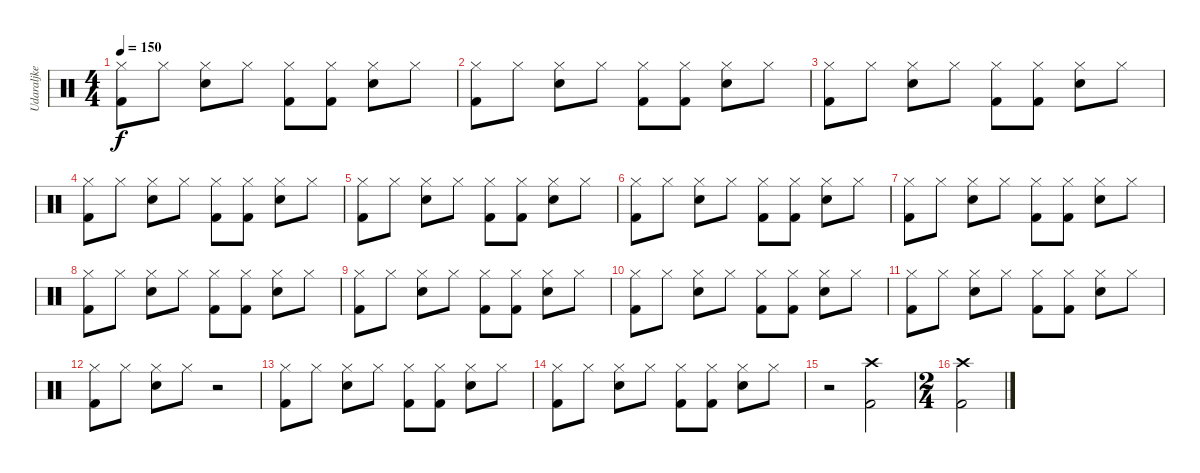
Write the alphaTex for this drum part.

\track ("Udaraljke" "Udaraljke") {instrument percussion}
\staff {score}
\articulation defaults
\ts (4 4)
\tempo 150
\clef neutral
\ks c
("Hi-Hat (closed)" "Kick (hit) 2").8{dy f} "Hi-Hat (closed)".8 ("Hi-Hat (closed)" "Snare (hit) 2").8 "Hi-Hat (closed)".8 ("Hi-Hat (closed)" "Kick (hit) 2").8 ("Hi-Hat (closed)" "Kick (hit) 2").8 ("Hi-Hat (closed)" "Snare (hit) 2").8 "Hi-Hat (closed)".8 |
("Hi-Hat (closed)" "Kick (hit) 2").8 "Hi-Hat (closed)".8 ("Hi-Hat (closed)" "Snare (hit) 2").8 "Hi-Hat (closed)".8 ("Hi-Hat (closed)" "Kick (hit) 2").8 ("Hi-Hat (closed)" "Kick (hit) 2").8 ("Hi-Hat (closed)" "Snare (hit) 2").8 "Hi-Hat (closed)".8 |
("Hi-Hat (closed)" "Kick (hit) 2").8 "Hi-Hat (closed)".8 ("Hi-Hat (closed)" "Snare (hit) 2").8 "Hi-Hat (closed)".8 ("Hi-Hat (closed)" "Kick (hit) 2").8 ("Hi-Hat (closed)" "Kick (hit) 2").8 ("Hi-Hat (closed)" "Snare (hit) 2").8 "Hi-Hat (closed)".8 |
("Hi-Hat (closed)" "Kick (hit) 2").8 "Hi-Hat (closed)".8 ("Hi-Hat (closed)" "Snare (hit) 2").8 "Hi-Hat (closed)".8 ("Hi-Hat (closed)" "Kick (hit) 2").8 ("Hi-Hat (closed)" "Kick (hit) 2").8 ("Hi-Hat (closed)" "Snare (hit) 2").8 "Hi-Hat (closed)".8 |
("Hi-Hat (closed)" "Kick (hit) 2").8 "Hi-Hat (closed)".8 ("Hi-Hat (closed)" "Snare (hit) 2").8 "Hi-Hat (closed)".8 ("Hi-Hat (closed)" "Kick (hit) 2").8 ("Hi-Hat (closed)" "Kick (hit) 2").8 ("Hi-Hat (closed)" "Snare (hit) 2").8 "Hi-Hat (closed)".8 |
("Hi-Hat (closed)" "Kick (hit) 2").8 "Hi-Hat (closed)".8 ("Hi-Hat (closed)" "Snare (hit) 2").8 "Hi-Hat (closed)".8 ("Hi-Hat (closed)" "Kick (hit) 2").8 ("Hi-Hat (closed)" "Kick (hit) 2").8 ("Hi-Hat (closed)" "Snare (hit) 2").8 "Hi-Hat (closed)".8 |
("Hi-Hat (closed)" "Kick (hit) 2").8 "Hi-Hat (closed)".8 ("Hi-Hat (closed)" "Snare (hit) 2").8 "Hi-Hat (closed)".8 ("Hi-Hat (closed)" "Kick (hit) 2").8 ("Hi-Hat (closed)" "Kick (hit) 2").8 ("Hi-Hat (closed)" "Snare (hit) 2").8 "Hi-Hat (closed)".8 |
("Hi-Hat (closed)" "Kick (hit) 2").8 "Hi-Hat (closed)".8 ("Hi-Hat (closed)" "Snare (hit) 2").8 "Hi-Hat (closed)".8 ("Hi-Hat (closed)" "Kick (hit) 2").8 ("Hi-Hat (closed)" "Kick (hit) 2").8 ("Hi-Hat (closed)" "Snare (hit) 2").8 "Hi-Hat (closed)".8 |
("Hi-Hat (closed)" "Kick (hit) 2").8 "Hi-Hat (closed)".8 ("Hi-Hat (closed)" "Snare (hit) 2").8 "Hi-Hat (closed)".8 ("Hi-Hat (closed)" "Kick (hit) 2").8 ("Hi-Hat (closed)" "Kick (hit) 2").8 ("Hi-Hat (closed)" "Snare (hit) 2").8 "Hi-Hat (closed)".8 |
("Hi-Hat (closed)" "Kick (hit) 2").8 "Hi-Hat (closed)".8 ("Hi-Hat (closed)" "Snare (hit) 2").8 "Hi-Hat (closed)".8 ("Hi-Hat (closed)" "Kick (hit) 2").8 ("Hi-Hat (closed)" "Kick (hit) 2").8 ("Hi-Hat (closed)" "Snare (hit) 2").8 "Hi-Hat (closed)".8 |
("Hi-Hat (closed)" "Kick (hit) 2").8 "Hi-Hat (closed)".8 ("Hi-Hat (closed)" "Snare (hit) 2").8 "Hi-Hat (closed)".8 ("Hi-Hat (closed)" "Kick (hit) 2").8 ("Hi-Hat (closed)" "Kick (hit) 2").8 ("Hi-Hat (closed)" "Snare (hit) 2").8 "Hi-Hat (closed)".8 |
("Hi-Hat (closed)" "Kick (hit) 2").8 "Hi-Hat (closed)".8 ("Hi-Hat (closed)" "Snare (hit) 2").8 "Hi-Hat (closed)".8 r.2 |
("Hi-Hat (closed)" "Kick (hit) 2").8 "Hi-Hat (closed)".8 ("Hi-Hat (closed)" "Snare (hit) 2").8 "Hi-Hat (closed)".8 ("Hi-Hat (closed)" "Kick (hit) 2").8 ("Hi-Hat (closed)" "Kick (hit) 2").8 ("Hi-Hat (closed)" "Snare (hit) 2").8 "Hi-Hat (closed)".8 |
("Hi-Hat (closed)" "Kick (hit) 2").8 "Hi-Hat (closed)".8 ("Hi-Hat (closed)" "Snare (hit) 2").8 "Hi-Hat (closed)".8 ("Hi-Hat (closed)" "Kick (hit) 2").8 ("Hi-Hat (closed)" "Kick (hit) 2").8 ("Hi-Hat (closed)" "Snare (hit) 2").8 "Hi-Hat (closed)".8 |
r.2 ("Kick (hit) 2" "Crash high (hit)").2 |
\ts (2 4)
("Crash high (hit)" "Kick (hit) 2").2
